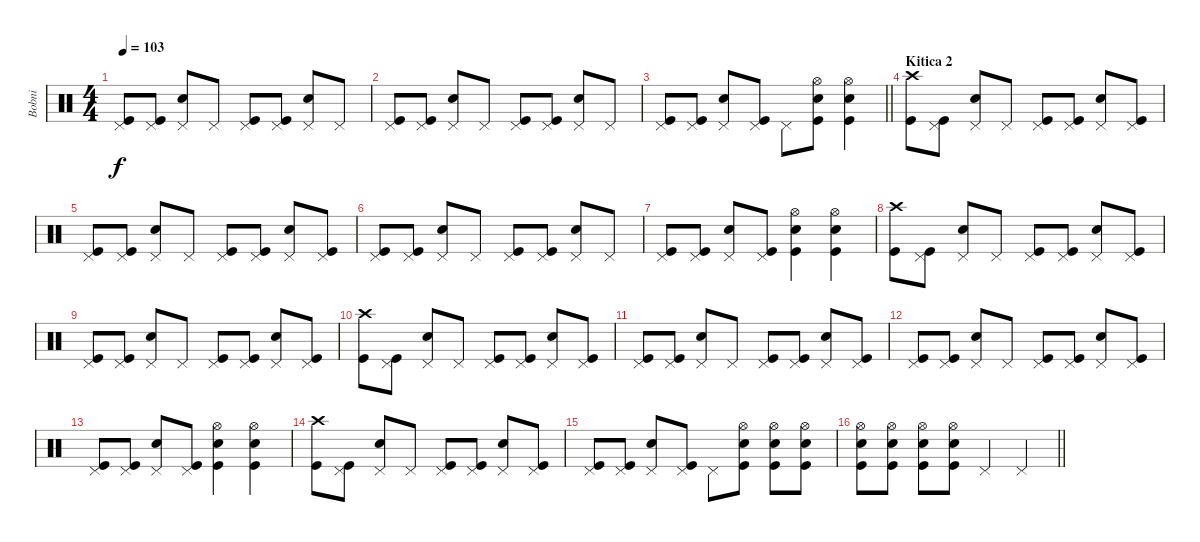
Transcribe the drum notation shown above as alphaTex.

\track ("Bobni" "Bobni") {instrument percussion}
\staff {score}
\articulation defaults
\ts (4 4)
\tempo 103
\clef neutral
\ks aminor
("Pedal Hi-Hat (hit)" "Kick (hit)").8{dy f} ("Pedal Hi-Hat (hit)" "Kick (hit)").8 ("Pedal Hi-Hat (hit)" "Snare (hit) 2").8 "Pedal Hi-Hat (hit)".8 ("Pedal Hi-Hat (hit)" "Kick (hit)").8 ("Pedal Hi-Hat (hit)" "Kick (hit)").8 ("Pedal Hi-Hat (hit)" "Snare (hit) 2").8 "Pedal Hi-Hat (hit)".8 |
("Pedal Hi-Hat (hit)" "Kick (hit)").8 ("Pedal Hi-Hat (hit)" "Kick (hit)").8 ("Pedal Hi-Hat (hit)" "Snare (hit) 2").8 "Pedal Hi-Hat (hit)".8 ("Pedal Hi-Hat (hit)" "Kick (hit)").8 ("Pedal Hi-Hat (hit)" "Kick (hit)").8 ("Pedal Hi-Hat (hit)" "Snare (hit) 2").8 "Pedal Hi-Hat (hit)".8 |
\barLineRight lightlight
("Pedal Hi-Hat (hit)" "Kick (hit)").8 ("Pedal Hi-Hat (hit)" "Kick (hit)").8 ("Pedal Hi-Hat (hit)" "Snare (hit) 2").8 ("Pedal Hi-Hat (hit)" "Kick (hit)").8 "Pedal Hi-Hat (hit)".8 ("Hi-Hat (open)" "Snare (hit) 2" "Kick (hit)").8 ("Hi-Hat (open)" "Snare (hit) 2" "Kick (hit)").4 |
\section ("" "Kitica 2")
("Crash high (hit)" "Kick (hit)").8 ("Pedal Hi-Hat (hit)" "Kick (hit)").8 ("Pedal Hi-Hat (hit)" "Snare (hit) 2").8 "Pedal Hi-Hat (hit)".8 ("Pedal Hi-Hat (hit)" "Kick (hit)").8 ("Pedal Hi-Hat (hit)" "Kick (hit)").8 ("Pedal Hi-Hat (hit)" "Snare (hit) 2").8 ("Pedal Hi-Hat (hit)" "Kick (hit)").8 |
("Pedal Hi-Hat (hit)" "Kick (hit)").8 ("Pedal Hi-Hat (hit)" "Kick (hit)").8 ("Pedal Hi-Hat (hit)" "Snare (hit) 2").8 "Pedal Hi-Hat (hit)".8 ("Pedal Hi-Hat (hit)" "Kick (hit)").8 ("Pedal Hi-Hat (hit)" "Kick (hit)").8 ("Pedal Hi-Hat (hit)" "Snare (hit) 2").8 ("Pedal Hi-Hat (hit)" "Kick (hit)").8 |
("Pedal Hi-Hat (hit)" "Kick (hit)").8 ("Pedal Hi-Hat (hit)" "Kick (hit)").8 ("Pedal Hi-Hat (hit)" "Snare (hit) 2").8 "Pedal Hi-Hat (hit)".8 ("Pedal Hi-Hat (hit)" "Kick (hit)").8 ("Pedal Hi-Hat (hit)" "Kick (hit)").8 ("Pedal Hi-Hat (hit)" "Snare (hit) 2").8 "Pedal Hi-Hat (hit)".8 |
("Pedal Hi-Hat (hit)" "Kick (hit)").8 ("Pedal Hi-Hat (hit)" "Kick (hit)").8 ("Pedal Hi-Hat (hit)" "Snare (hit) 2").8 ("Pedal Hi-Hat (hit)" "Kick (hit)").8 ("Hi-Hat (open)" "Snare (hit) 2" "Kick (hit)").4 ("Hi-Hat (open)" "Snare (hit) 2" "Kick (hit)").4 |
("Crash high (hit)" "Kick (hit)").8 ("Pedal Hi-Hat (hit)" "Kick (hit)").8 ("Pedal Hi-Hat (hit)" "Snare (hit) 2").8 "Pedal Hi-Hat (hit)".8 ("Pedal Hi-Hat (hit)" "Kick (hit)").8 ("Pedal Hi-Hat (hit)" "Kick (hit)").8 ("Pedal Hi-Hat (hit)" "Snare (hit) 2").8 ("Pedal Hi-Hat (hit)" "Kick (hit)").8 |
("Pedal Hi-Hat (hit)" "Kick (hit)").8 ("Pedal Hi-Hat (hit)" "Kick (hit)").8 ("Pedal Hi-Hat (hit)" "Snare (hit) 2").8 "Pedal Hi-Hat (hit)".8 ("Pedal Hi-Hat (hit)" "Kick (hit)").8 ("Pedal Hi-Hat (hit)" "Kick (hit)").8 ("Pedal Hi-Hat (hit)" "Snare (hit) 2").8 ("Pedal Hi-Hat (hit)" "Kick (hit)").8 |
("Crash high (hit)" "Kick (hit)").8 ("Pedal Hi-Hat (hit)" "Kick (hit)").8 ("Pedal Hi-Hat (hit)" "Snare (hit) 2").8 "Pedal Hi-Hat (hit)".8 ("Pedal Hi-Hat (hit)" "Kick (hit)").8 ("Pedal Hi-Hat (hit)" "Kick (hit)").8 ("Pedal Hi-Hat (hit)" "Snare (hit) 2").8 ("Pedal Hi-Hat (hit)" "Kick (hit)").8 |
("Pedal Hi-Hat (hit)" "Kick (hit)").8 ("Pedal Hi-Hat (hit)" "Kick (hit)").8 ("Pedal Hi-Hat (hit)" "Snare (hit) 2").8 "Pedal Hi-Hat (hit)".8 ("Pedal Hi-Hat (hit)" "Kick (hit)").8 ("Pedal Hi-Hat (hit)" "Kick (hit)").8 ("Pedal Hi-Hat (hit)" "Snare (hit) 2").8 ("Pedal Hi-Hat (hit)" "Kick (hit)").8 |
("Pedal Hi-Hat (hit)" "Kick (hit)").8 ("Pedal Hi-Hat (hit)" "Kick (hit)").8 ("Pedal Hi-Hat (hit)" "Snare (hit) 2").8 "Pedal Hi-Hat (hit)".8 ("Pedal Hi-Hat (hit)" "Kick (hit)").8 ("Pedal Hi-Hat (hit)" "Kick (hit)").8 ("Pedal Hi-Hat (hit)" "Snare (hit) 2").8 ("Pedal Hi-Hat (hit)" "Kick (hit)").8 |
("Pedal Hi-Hat (hit)" "Kick (hit)").8 ("Pedal Hi-Hat (hit)" "Kick (hit)").8 ("Pedal Hi-Hat (hit)" "Snare (hit) 2").8 ("Pedal Hi-Hat (hit)" "Kick (hit)").8 ("Hi-Hat (open)" "Snare (hit) 2" "Kick (hit)").4 ("Hi-Hat (open)" "Snare (hit) 2" "Kick (hit)").4 |
("Crash high (hit)" "Kick (hit)").8 ("Pedal Hi-Hat (hit)" "Kick (hit)").8 ("Pedal Hi-Hat (hit)" "Snare (hit) 2").8 "Pedal Hi-Hat (hit)".8 ("Pedal Hi-Hat (hit)" "Kick (hit)").8 ("Pedal Hi-Hat (hit)" "Kick (hit)").8 ("Pedal Hi-Hat (hit)" "Snare (hit) 2").8 ("Pedal Hi-Hat (hit)" "Kick (hit)").8 |
("Pedal Hi-Hat (hit)" "Kick (hit)").8 ("Pedal Hi-Hat (hit)" "Kick (hit)").8 ("Pedal Hi-Hat (hit)" "Snare (hit) 2").8 ("Pedal Hi-Hat (hit)" "Kick (hit)").8 "Pedal Hi-Hat (hit)".8 ("Hi-Hat (open)" "Snare (hit) 2" "Kick (hit)").8 ("Hi-Hat (open)" "Snare (hit) 2" "Kick (hit)").8 ("Hi-Hat (open)" "Snare (hit) 2" "Kick (hit)").8 |
\barLineRight lightlight
("Hi-Hat (open)" "Snare (hit) 2" "Kick (hit)").8 ("Hi-Hat (open)" "Snare (hit) 2" "Kick (hit)").8 ("Hi-Hat (open)" "Snare (hit) 2" "Kick (hit)").8 ("Hi-Hat (open)" "Snare (hit) 2" "Kick (hit)").8 "Pedal Hi-Hat (hit)".4 "Pedal Hi-Hat (hit)".4
